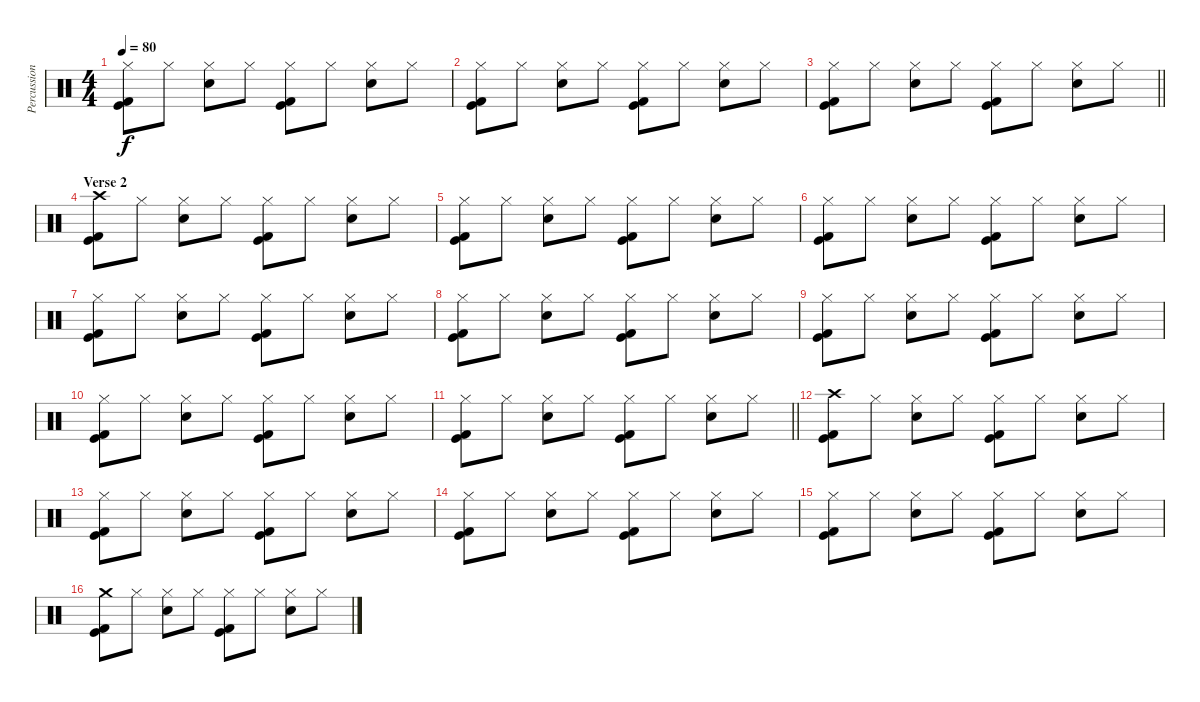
\track ("Percussion" "Percussion") {instrument percussion}
\staff {score}
\articulation defaults
\ts (4 4)
\tempo 80
\clef neutral
\ks c
("Hi-Hat (closed)" "Kick (hit)" "Kick (hit) 2").8{dy f} "Hi-Hat (closed)".8 ("Hi-Hat (closed)" "Electric Snare (hit)").8 "Hi-Hat (closed)".8 ("Hi-Hat (closed)" "Kick (hit)" "Kick (hit) 2").8 "Hi-Hat (closed)".8 ("Hi-Hat (closed)" "Electric Snare (hit)").8 "Hi-Hat (closed)".8 |
("Hi-Hat (closed)" "Kick (hit)" "Kick (hit) 2").8 "Hi-Hat (closed)".8 ("Hi-Hat (closed)" "Electric Snare (hit)").8 "Hi-Hat (closed)".8 ("Hi-Hat (closed)" "Kick (hit)" "Kick (hit) 2").8 "Hi-Hat (closed)".8 ("Hi-Hat (closed)" "Electric Snare (hit)").8 "Hi-Hat (closed)".8 |
\barLineRight lightlight
("Hi-Hat (closed)" "Kick (hit)" "Kick (hit) 2").8 "Hi-Hat (closed)".8 ("Hi-Hat (closed)" "Electric Snare (hit)").8 "Hi-Hat (closed)".8 ("Hi-Hat (closed)" "Kick (hit)" "Kick (hit) 2").8 "Hi-Hat (closed)".8 ("Hi-Hat (closed)" "Electric Snare (hit)").8 "Hi-Hat (closed)".8 |
\section ("" "Verse 2")
("Crash high (hit)" "Kick (hit)" "Kick (hit) 2").8 "Hi-Hat (closed)".8 ("Hi-Hat (closed)" "Electric Snare (hit)").8 "Hi-Hat (closed)".8 ("Hi-Hat (closed)" "Kick (hit)" "Kick (hit) 2").8 "Hi-Hat (closed)".8 ("Hi-Hat (closed)" "Electric Snare (hit)").8 "Hi-Hat (closed)".8 |
("Hi-Hat (closed)" "Kick (hit)" "Kick (hit) 2").8 "Hi-Hat (closed)".8 ("Hi-Hat (closed)" "Electric Snare (hit)").8 "Hi-Hat (closed)".8 ("Hi-Hat (closed)" "Kick (hit)" "Kick (hit) 2").8 "Hi-Hat (closed)".8 ("Hi-Hat (closed)" "Electric Snare (hit)").8 "Hi-Hat (closed)".8 |
("Hi-Hat (closed)" "Kick (hit)" "Kick (hit) 2").8 "Hi-Hat (closed)".8 ("Hi-Hat (closed)" "Electric Snare (hit)").8 "Hi-Hat (closed)".8 ("Hi-Hat (closed)" "Kick (hit)" "Kick (hit) 2").8 "Hi-Hat (closed)".8 ("Hi-Hat (closed)" "Electric Snare (hit)").8 "Hi-Hat (closed)".8 |
("Hi-Hat (closed)" "Kick (hit)" "Kick (hit) 2").8 "Hi-Hat (closed)".8 ("Hi-Hat (closed)" "Electric Snare (hit)").8 "Hi-Hat (closed)".8 ("Hi-Hat (closed)" "Kick (hit)" "Kick (hit) 2").8 "Hi-Hat (closed)".8 ("Hi-Hat (closed)" "Electric Snare (hit)").8 "Hi-Hat (closed)".8 |
("Hi-Hat (closed)" "Kick (hit)" "Kick (hit) 2").8 "Hi-Hat (closed)".8 ("Hi-Hat (closed)" "Electric Snare (hit)").8 "Hi-Hat (closed)".8 ("Hi-Hat (closed)" "Kick (hit)" "Kick (hit) 2").8 "Hi-Hat (closed)".8 ("Hi-Hat (closed)" "Electric Snare (hit)").8 "Hi-Hat (closed)".8 |
("Hi-Hat (closed)" "Kick (hit)" "Kick (hit) 2").8 "Hi-Hat (closed)".8 ("Hi-Hat (closed)" "Electric Snare (hit)").8 "Hi-Hat (closed)".8 ("Hi-Hat (closed)" "Kick (hit)" "Kick (hit) 2").8 "Hi-Hat (closed)".8 ("Hi-Hat (closed)" "Electric Snare (hit)").8 "Hi-Hat (closed)".8 |
("Hi-Hat (closed)" "Kick (hit)" "Kick (hit) 2").8 "Hi-Hat (closed)".8 ("Hi-Hat (closed)" "Electric Snare (hit)").8 "Hi-Hat (closed)".8 ("Hi-Hat (closed)" "Kick (hit)" "Kick (hit) 2").8 "Hi-Hat (closed)".8 ("Hi-Hat (closed)" "Electric Snare (hit)").8 "Hi-Hat (closed)".8 |
\barLineRight lightlight
("Hi-Hat (closed)" "Kick (hit)" "Kick (hit) 2").8 "Hi-Hat (closed)".8 ("Hi-Hat (closed)" "Electric Snare (hit)").8 "Hi-Hat (closed)".8 ("Hi-Hat (closed)" "Kick (hit)" "Kick (hit) 2").8 "Hi-Hat (closed)".8 ("Hi-Hat (closed)" "Electric Snare (hit)").8 "Hi-Hat (closed)".8 |
\section ("" "")
("Crash high (hit)" "Kick (hit)" "Kick (hit) 2").8 "Hi-Hat (closed)".8 ("Hi-Hat (closed)" "Electric Snare (hit)").8 "Hi-Hat (closed)".8 ("Hi-Hat (closed)" "Kick (hit)" "Kick (hit) 2").8 "Hi-Hat (closed)".8 ("Hi-Hat (closed)" "Electric Snare (hit)").8 "Hi-Hat (closed)".8 |
("Hi-Hat (closed)" "Kick (hit)" "Kick (hit) 2").8 "Hi-Hat (closed)".8 ("Hi-Hat (closed)" "Electric Snare (hit)").8 "Hi-Hat (closed)".8 ("Hi-Hat (closed)" "Kick (hit)" "Kick (hit) 2").8 "Hi-Hat (closed)".8 ("Hi-Hat (closed)" "Electric Snare (hit)").8 "Hi-Hat (closed)".8 |
("Hi-Hat (closed)" "Kick (hit)" "Kick (hit) 2").8 "Hi-Hat (closed)".8 ("Hi-Hat (closed)" "Electric Snare (hit)").8 "Hi-Hat (closed)".8 ("Hi-Hat (closed)" "Kick (hit)" "Kick (hit) 2").8 "Hi-Hat (closed)".8 ("Hi-Hat (closed)" "Electric Snare (hit)").8 "Hi-Hat (closed)".8 |
("Hi-Hat (closed)" "Kick (hit)" "Kick (hit) 2").8 "Hi-Hat (closed)".8 ("Hi-Hat (closed)" "Electric Snare (hit)").8 "Hi-Hat (closed)".8 ("Hi-Hat (closed)" "Kick (hit)" "Kick (hit) 2").8 "Hi-Hat (closed)".8 ("Hi-Hat (closed)" "Electric Snare (hit)").8 "Hi-Hat (closed)".8 |
("Crash medium (hit)" "Kick (hit)" "Kick (hit) 2").8 "Hi-Hat (closed)".8 ("Hi-Hat (closed)" "Electric Snare (hit)").8 "Hi-Hat (closed)".8 ("Hi-Hat (closed)" "Kick (hit)" "Kick (hit) 2").8 "Hi-Hat (closed)".8 ("Hi-Hat (closed)" "Electric Snare (hit)").8 "Hi-Hat (closed)".8
